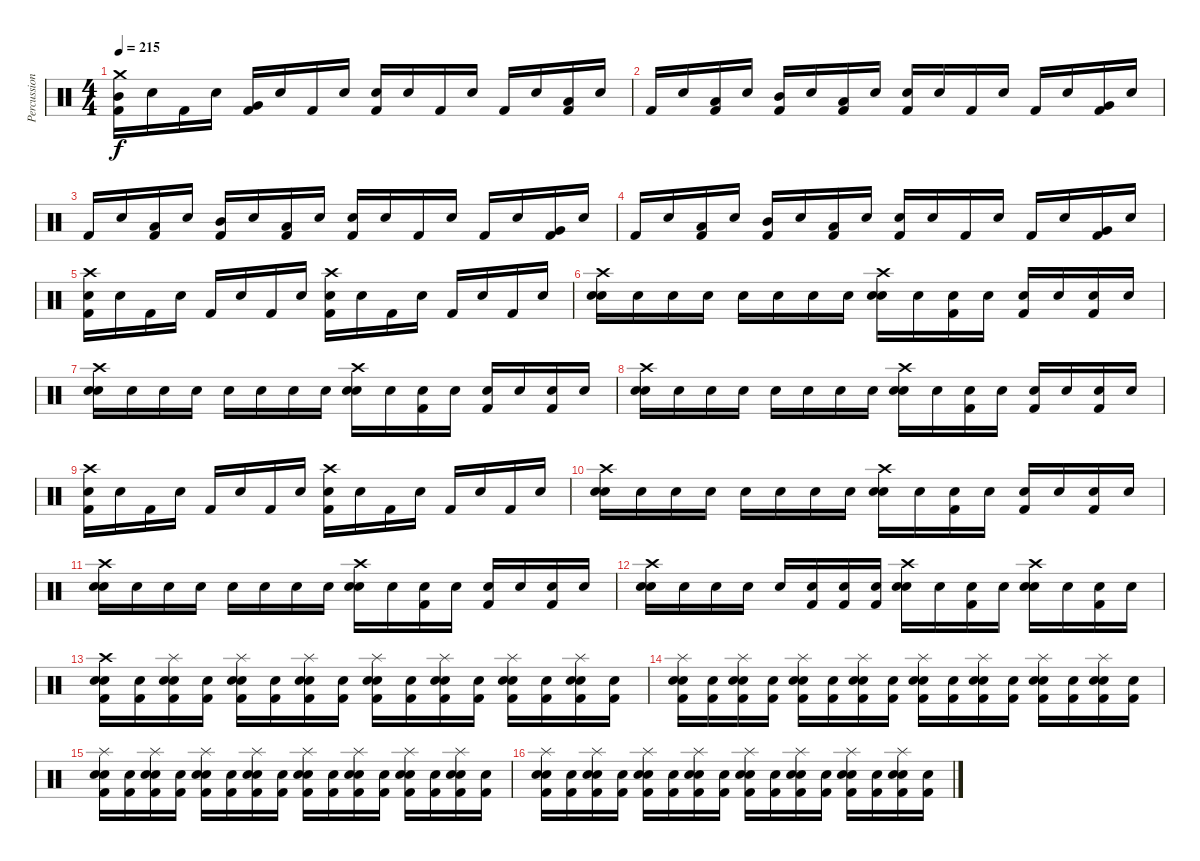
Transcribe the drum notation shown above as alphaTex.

\track ("Percussion" "Percussion") {instrument percussion}
\staff {score}
\articulation defaults
\ts (4 4)
\tempo 215
\clef neutral
\ks c
("Crash medium (hit)" "Mid Tom (hit)" "Kick (hit) 2").16{dy f} "Snare (hit)".16 "Kick (hit) 2".16 "Snare (hit)".16 ("Very Low Tom (hit)" "Kick (hit) 2").16 "Snare (hit)".16 "Kick (hit) 2".16 "Snare (hit)".16 ("Snare (hit) 2" "Kick (hit) 2").16 "Snare (hit)".16 "Kick (hit) 2".16 "Snare (hit)".16 "Kick (hit) 2".16 "Snare (hit)".16 ("Low Tom (hit)" "Kick (hit) 2").16 "Snare (hit)".16 |
"Kick (hit) 2".16 "Snare (hit)".16 ("Low Tom (hit)" "Kick (hit) 2").16 "Snare (hit)".16 ("Mid Tom (hit)" "Kick (hit) 2").16 "Snare (hit)".16 ("Low Floor Tom (hit)" "Kick (hit) 2").16 "Snare (hit)".16 ("Snare (hit) 2" "Kick (hit) 2").16 "Snare (hit)".16 "Kick (hit) 2".16 "Snare (hit)".16 "Kick (hit) 2".16 "Snare (hit)".16 ("Very Low Tom (hit)" "Kick (hit) 2").16 "Snare (hit)".16 |
"Kick (hit) 2".16 "Snare (hit)".16 ("Low Tom (hit)" "Kick (hit) 2").16 "Snare (hit)".16 ("Mid Tom (hit)" "Kick (hit) 2").16 "Snare (hit)".16 ("Low Floor Tom (hit)" "Kick (hit) 2").16 "Snare (hit)".16 ("Snare (hit) 2" "Kick (hit) 2").16 "Snare (hit)".16 "Kick (hit) 2".16 "Snare (hit)".16 "Kick (hit) 2".16 "Snare (hit)".16 ("Very Low Tom (hit)" "Kick (hit) 2").16 "Snare (hit)".16 |
"Kick (hit) 2".16 "Snare (hit)".16 ("Low Tom (hit)" "Kick (hit) 2").16 "Snare (hit)".16 ("Mid Tom (hit)" "Kick (hit) 2").16 "Snare (hit)".16 ("Low Floor Tom (hit)" "Kick (hit) 2").16 "Snare (hit)".16 ("Snare (hit) 2" "Kick (hit) 2").16 "Snare (hit)".16 "Kick (hit) 2".16 "Snare (hit)".16 "Kick (hit) 2".16 "Snare (hit)".16 ("Very Low Tom (hit)" "Kick (hit) 2").16 "Snare (hit)".16 |
("Crash high (hit)" "Snare (hit) 2" "Kick (hit) 2").16 "Snare (hit)".16 "Kick (hit) 2".16 "Snare (hit)".16 "Kick (hit) 2".16 "Snare (hit)".16 "Kick (hit) 2".16 "Snare (hit)".16 ("Crash high (hit)" "Snare (hit) 2" "Kick (hit) 2").16 "Snare (hit)".16 "Kick (hit) 2".16 "Snare (hit)".16 "Kick (hit) 2".16 "Snare (hit)".16 "Kick (hit) 2".16 "Snare (hit)".16 |
("Crash high (hit)" "Snare (hit) 2" "Snare (hit)").16 "Snare (hit)".16 "Snare (hit)".16 "Snare (hit)".16 "Snare (hit)".16 "Snare (hit)".16 "Snare (hit)".16 "Snare (hit)".16 ("Crash high (hit)" "Snare (hit) 2" "Snare (hit)").16 "Snare (hit)".16 ("Kick (hit) 2" "Snare (hit)").16 "Snare (hit)".16 ("Kick (hit) 2" "Snare (hit)").16 "Snare (hit)".16 ("Kick (hit) 2" "Snare (hit)").16 "Snare (hit)".16 |
("Crash high (hit)" "Snare (hit) 2" "Snare (hit)").16 "Snare (hit)".16 "Snare (hit)".16 "Snare (hit)".16 "Snare (hit)".16 "Snare (hit)".16 "Snare (hit)".16 "Snare (hit)".16 ("Crash high (hit)" "Snare (hit) 2" "Snare (hit)").16 "Snare (hit)".16 ("Kick (hit) 2" "Snare (hit)").16 "Snare (hit)".16 ("Kick (hit) 2" "Snare (hit)").16 "Snare (hit)".16 ("Kick (hit) 2" "Snare (hit)").16 "Snare (hit)".16 |
("Crash high (hit)" "Snare (hit) 2" "Snare (hit)").16 "Snare (hit)".16 "Snare (hit)".16 "Snare (hit)".16 "Snare (hit)".16 "Snare (hit)".16 "Snare (hit)".16 "Snare (hit)".16 ("Crash high (hit)" "Snare (hit) 2" "Snare (hit)").16 "Snare (hit)".16 ("Kick (hit) 2" "Snare (hit)").16 "Snare (hit)".16 ("Kick (hit) 2" "Snare (hit)").16 "Snare (hit)".16 ("Kick (hit) 2" "Snare (hit)").16 "Snare (hit)".16 |
("Crash high (hit)" "Snare (hit) 2" "Kick (hit) 2").16 "Snare (hit)".16 "Kick (hit) 2".16 "Snare (hit)".16 "Kick (hit) 2".16 "Snare (hit)".16 "Kick (hit) 2".16 "Snare (hit)".16 ("Crash high (hit)" "Snare (hit) 2" "Kick (hit) 2").16 "Snare (hit)".16 "Kick (hit) 2".16 "Snare (hit)".16 "Kick (hit) 2".16 "Snare (hit)".16 "Kick (hit) 2".16 "Snare (hit)".16 |
("Crash high (hit)" "Snare (hit) 2" "Snare (hit)").16 "Snare (hit)".16 "Snare (hit)".16 "Snare (hit)".16 "Snare (hit)".16 "Snare (hit)".16 "Snare (hit)".16 "Snare (hit)".16 ("Crash high (hit)" "Snare (hit) 2" "Snare (hit)").16 "Snare (hit)".16 ("Kick (hit) 2" "Snare (hit)").16 "Snare (hit)".16 ("Kick (hit) 2" "Snare (hit)").16 "Snare (hit)".16 ("Kick (hit) 2" "Snare (hit)").16 "Snare (hit)".16 |
("Crash high (hit)" "Snare (hit) 2" "Snare (hit)").16 "Snare (hit)".16 "Snare (hit)".16 "Snare (hit)".16 "Snare (hit)".16 "Snare (hit)".16 "Snare (hit)".16 "Snare (hit)".16 ("Crash high (hit)" "Snare (hit) 2" "Snare (hit)").16 "Snare (hit)".16 ("Kick (hit) 2" "Snare (hit)").16 "Snare (hit)".16 ("Kick (hit) 2" "Snare (hit)").16 "Snare (hit)".16 ("Kick (hit) 2" "Snare (hit)").16 "Snare (hit)".16 |
("Crash high (hit)" "Snare (hit) 2" "Snare (hit)").16 "Snare (hit)".16 "Snare (hit)".16 "Snare (hit)".16 "Snare (hit)".16 ("Kick (hit) 2" "Snare (hit)").16 ("Kick (hit) 2" "Snare (hit)").16 ("Kick (hit) 2" "Snare (hit)").16 ("Crash high (hit)" "Snare (hit) 2" "Snare (hit)").16 "Snare (hit)".16 ("Kick (hit) 2" "Snare (hit)").16 "Snare (hit)".16 ("Crash high (hit)" "Snare (hit) 2" "Snare (hit)").16 "Snare (hit)".16 ("Kick (hit) 2" "Snare (hit)").16 "Snare (hit)".16 |
("Crash high (hit)" "Snare (hit) 2" "Kick (hit) 2" "Snare (hit)").16 ("Kick (hit) 2" "Snare (hit)").16 ("Splash (hit)" "Snare (hit) 2" "Kick (hit) 2" "Snare (hit)").16 ("Kick (hit) 2" "Snare (hit)").16 ("Splash (hit)" "Snare (hit) 2" "Kick (hit) 2" "Snare (hit)").16 ("Kick (hit) 2" "Snare (hit)").16 ("Splash (hit)" "Snare (hit) 2" "Kick (hit) 2" "Snare (hit)").16 ("Kick (hit) 2" "Snare (hit)").16 ("Splash (hit)" "Snare (hit) 2" "Kick (hit) 2" "Snare (hit)").16 ("Kick (hit) 2" "Snare (hit)").16 ("Splash (hit)" "Snare (hit) 2" "Kick (hit) 2" "Snare (hit)").16 ("Kick (hit) 2" "Snare (hit)").16 ("Splash (hit)" "Snare (hit) 2" "Kick (hit) 2" "Snare (hit)").16 ("Kick (hit) 2" "Snare (hit)").16 ("Splash (hit)" "Snare (hit) 2" "Kick (hit) 2" "Snare (hit)").16 ("Kick (hit) 2" "Snare (hit)").16 |
("Splash (hit)" "Snare (hit) 2" "Kick (hit) 2" "Snare (hit)").16 ("Kick (hit) 2" "Snare (hit)").16 ("Splash (hit)" "Snare (hit) 2" "Kick (hit) 2" "Snare (hit)").16 ("Kick (hit) 2" "Snare (hit)").16 ("Splash (hit)" "Snare (hit) 2" "Kick (hit) 2" "Snare (hit)").16 ("Kick (hit) 2" "Snare (hit)").16 ("Splash (hit)" "Snare (hit) 2" "Kick (hit) 2" "Snare (hit)").16 ("Kick (hit) 2" "Snare (hit)").16 ("Splash (hit)" "Snare (hit) 2" "Kick (hit) 2" "Snare (hit)").16 ("Kick (hit) 2" "Snare (hit)").16 ("Splash (hit)" "Snare (hit) 2" "Kick (hit) 2" "Snare (hit)").16 ("Kick (hit) 2" "Snare (hit)").16 ("Splash (hit)" "Snare (hit) 2" "Kick (hit) 2" "Snare (hit)").16 ("Kick (hit) 2" "Snare (hit)").16 ("Splash (hit)" "Snare (hit) 2" "Kick (hit) 2" "Snare (hit)").16 ("Kick (hit) 2" "Snare (hit)").16 |
("Splash (hit)" "Snare (hit) 2" "Kick (hit) 2" "Snare (hit)").16 ("Kick (hit) 2" "Snare (hit)").16 ("Splash (hit)" "Snare (hit) 2" "Kick (hit) 2" "Snare (hit)").16 ("Kick (hit) 2" "Snare (hit)").16 ("Splash (hit)" "Snare (hit) 2" "Kick (hit) 2" "Snare (hit)").16 ("Kick (hit) 2" "Snare (hit)").16 ("Splash (hit)" "Snare (hit) 2" "Kick (hit) 2" "Snare (hit)").16 ("Kick (hit) 2" "Snare (hit)").16 ("Splash (hit)" "Snare (hit) 2" "Kick (hit) 2" "Snare (hit)").16 ("Kick (hit) 2" "Snare (hit)").16 ("Splash (hit)" "Snare (hit) 2" "Kick (hit) 2" "Snare (hit)").16 ("Kick (hit) 2" "Snare (hit)").16 ("Splash (hit)" "Snare (hit) 2" "Kick (hit) 2" "Snare (hit)").16 ("Kick (hit) 2" "Snare (hit)").16 ("Splash (hit)" "Snare (hit) 2" "Kick (hit) 2" "Snare (hit)").16 ("Kick (hit) 2" "Snare (hit)").16 |
("Splash (hit)" "Snare (hit) 2" "Kick (hit) 2" "Snare (hit)").16 ("Kick (hit) 2" "Snare (hit)").16 ("Splash (hit)" "Snare (hit) 2" "Kick (hit) 2" "Snare (hit)").16 ("Kick (hit) 2" "Snare (hit)").16 ("Splash (hit)" "Snare (hit) 2" "Kick (hit) 2" "Snare (hit)").16 ("Kick (hit) 2" "Snare (hit)").16 ("Splash (hit)" "Snare (hit) 2" "Kick (hit) 2" "Snare (hit)").16 ("Kick (hit) 2" "Snare (hit)").16 ("Splash (hit)" "Snare (hit) 2" "Kick (hit) 2" "Snare (hit)").16 ("Kick (hit) 2" "Snare (hit)").16 ("Splash (hit)" "Snare (hit) 2" "Kick (hit) 2" "Snare (hit)").16 ("Kick (hit) 2" "Snare (hit)").16 ("Splash (hit)" "Snare (hit) 2" "Kick (hit) 2" "Snare (hit)").16 ("Kick (hit) 2" "Snare (hit)").16 ("Splash (hit)" "Snare (hit) 2" "Kick (hit) 2" "Snare (hit)").16 ("Kick (hit) 2" "Snare (hit)").16
